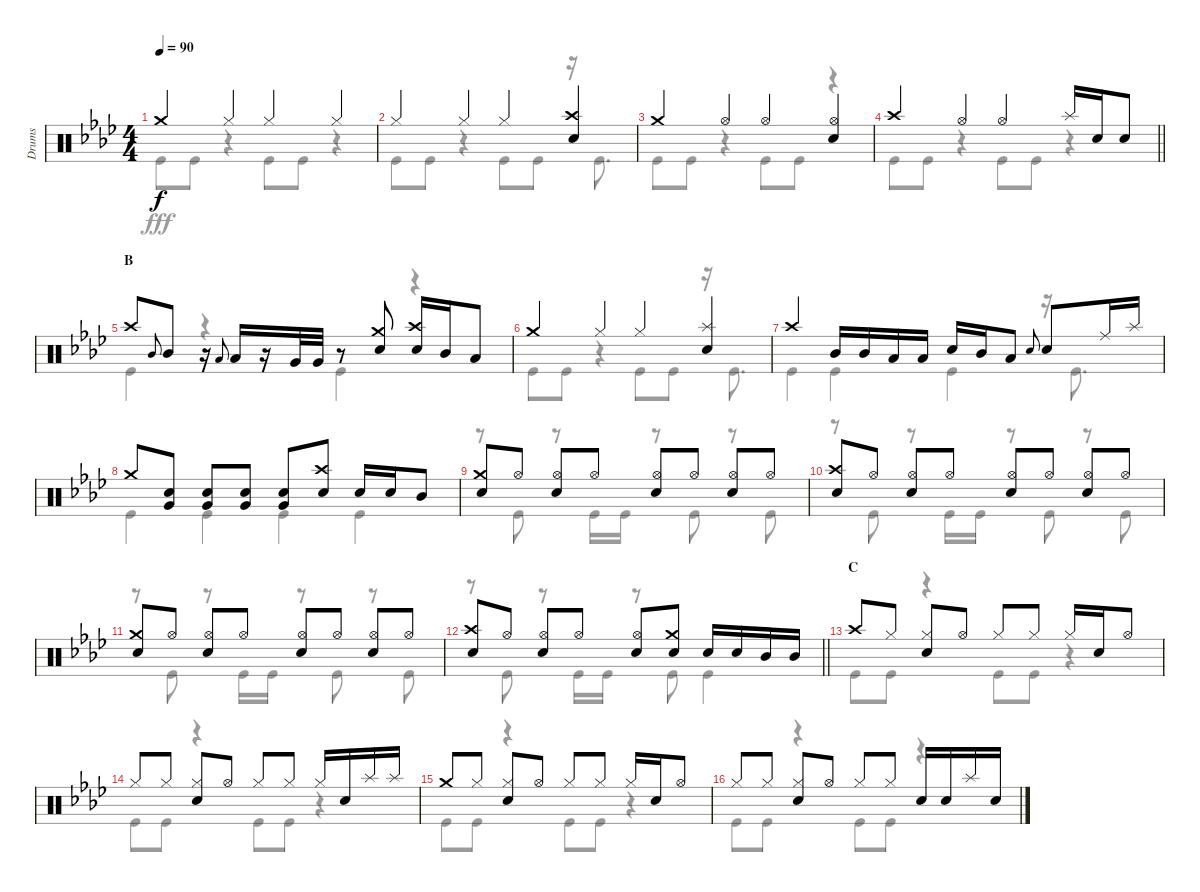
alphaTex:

\track ("Drums" "Drums") {instrument percussion}
\staff {score}
\articulation defaults
\voice
\ts (4 4)
\tempo 90
\clef neutral
\ks ab "Crash medium (hit)".4{dy f} "Hi-Hat (closed)".4 "Hi-Hat (closed)".4 "Hi-Hat (closed)".4
|
"Hi-Hat (closed)".4 "Hi-Hat (closed)".4 "Hi-Hat (closed)".4 ("Crash high (hit)" "Snare (hit) 2").4 |
"Crash medium (hit)".4 "Hi-Hat (open)".4 "Hi-Hat (open)".4 ("Hi-Hat (open)" "Snare (hit) 2").4 |
\barLineRight lightlight "Crash high (hit)".4 "Hi-Hat (open)".4 "Hi-Hat (open)".4 "Splash (hit)".16 "Snare (hit) 2".16 "Snare (hit) 2".8
|
\section ("" "B")
"Crash high (hit)".8 "Mid Tom (hit)".8{gr onbeat} "Mid Tom (hit)".8 r.16 "Low Tom (hit)".8{gr onbeat} "Low Tom (hit)".16 r.16 "Very Low Tom (hit)".32 "Very Low Tom (hit)".32 r.8 ("Crash medium (hit)" "Snare (hit) 2").8 ("Crash high (hit)" "Snare (hit) 2").16 "Mid Tom (hit)".16 "Low Tom (hit)".8 |
"Crash medium (hit)".4 "Hi-Hat (closed)".4 "Hi-Hat (closed)".4 ("Splash (hit)" "Snare (hit) 2").4 |
"Crash high (hit)".4 "Mid Tom (hit)".16 "Mid Tom (hit)".16 "Low Tom (hit)".16 "Low Tom (hit)".16 "Snare (hit) 2".16 "Mid Tom (hit)".16 "Low Tom (hit)".8 "Snare (hit) 2".8{gr onbeat} "Snare (hit) 2".8 "Ride (middle)".16 "Splash (hit)".16 |
"Crash medium (hit)".8 ("Snare (hit) 2" "Very Low Tom (hit)").8 ("Snare (hit) 2" "Very Low Tom (hit)").8 ("Snare (hit) 2" "Very Low Tom (hit)").8 ("Snare (hit) 2" "Very Low Tom (hit)").8 ("Crash high (hit)" "Snare (hit) 2").8 "Snare (hit) 2".16 "Snare (hit) 2".16 "Mid Tom (hit)".8 |
("Crash medium (hit)" "Snare (hit) 2").8 "Hi-Hat (open)".8 ("Hi-Hat (open)" "Snare (hit) 2").8 "Hi-Hat (open)".8 ("Hi-Hat (open)" "Snare (hit) 2").8 "Hi-Hat (open)".8 ("Hi-Hat (open)" "Snare (hit) 2").8 "Hi-Hat (open)".8 |
("Crash high (hit)" "Snare (hit) 2").8 "Hi-Hat (open)".8 ("Hi-Hat (open)" "Snare (hit) 2").8 "Hi-Hat (open)".8 ("Hi-Hat (open)" "Snare (hit) 2").8 "Hi-Hat (open)".8 ("Hi-Hat (open)" "Snare (hit) 2").8 "Hi-Hat (open)".8 |
("Crash medium (hit)" "Snare (hit) 2").8 "Hi-Hat (open)".8 ("Hi-Hat (open)" "Snare (hit) 2").8 "Hi-Hat (open)".8 ("Hi-Hat (open)" "Snare (hit) 2").8 "Hi-Hat (open)".8 ("Hi-Hat (open)" "Snare (hit) 2").8 "Hi-Hat (open)".8 |
\barLineRight lightlight
("Crash high (hit)" "Snare (hit) 2").8 "Hi-Hat (open)".8 ("Hi-Hat (open)" "Snare (hit) 2").8 "Hi-Hat (open)".8 ("Hi-Hat (open)" "Snare (hit) 2").8 ("Crash medium (hit)" "Snare (hit) 2").8 "Snare (hit) 2".16 "Snare (hit) 2".16 "Mid Tom (hit)".16 "Mid Tom (hit)".16 |
\section ("" "C")
"Crash high (hit)".8 "Hi-Hat (closed)".8 ("Hi-Hat (closed)" "Snare (hit) 2").8 "Hi-Hat (open)".8 "Hi-Hat (closed)".8 "Hi-Hat (closed)".8 "Hi-Hat (closed)".16 "Snare (hit) 2".16 "Hi-Hat (open)".8 |
"Hi-Hat (closed)".8 "Hi-Hat (closed)".8 ("Hi-Hat (closed)" "Snare (hit) 2").8 "Hi-Hat (open)".8 "Hi-Hat (closed)".8 "Hi-Hat (closed)".8 "Hi-Hat (closed)".16 "Snare (hit) 2".16 "Splash (hit)".16 "Splash (hit)".16 |
"Crash medium (hit)".8 "Hi-Hat (closed)".8 ("Hi-Hat (closed)" "Snare (hit) 2").8 "Hi-Hat (open)".8 "Hi-Hat (closed)".8 "Hi-Hat (closed)".8 "Hi-Hat (closed)".16 "Snare (hit) 2".16 "Hi-Hat (open)".8 |
"Hi-Hat (closed)".8 "Hi-Hat (closed)".8 ("Hi-Hat (closed)" "Snare (hit) 2").8 "Hi-Hat (open)".8 "Hi-Hat (closed)".8 "Hi-Hat (closed)".8 "Snare (hit) 2".16 "Snare (hit) 2".16 "Splash (hit)".16 "Snare (hit) 2".16
\voice
\clef neutral
\ottava regular
\simile none
\ks ab "Kick (hit)".8{dy fff} "Kick (hit)".8
r.4 "Kick (hit)".8 "Kick (hit)".8 r.4 |
"Kick (hit)".8 "Kick (hit)".8 r.4 "Kick (hit)".8 "Kick (hit)".8 r.16 "Kick (hit)".8{d} |
"Kick (hit)".8 "Kick (hit)".8 r.4 "Kick (hit)".8 "Kick (hit)".8 r.4 |
\barLineRight lightlight "Kick (hit)".8 "Kick (hit)".8
r.4 "Kick (hit)".8 "Kick (hit)".8 r.4 |
"Kick (hit)".4 r.4 "Kick (hit)".4 r.4 |
"Kick (hit)".8 "Kick (hit)".8 r.4 "Kick (hit)".8 "Kick (hit)".8 r.16 "Kick (hit)".8{d} |
"Kick (hit)".4 "Kick (hit)".4 "Kick (hit)".4 r.16 "Kick (hit)".8{d} |
"Kick (hit)".4 "Kick (hit)".4 "Kick (hit)".4 "Kick (hit)".4 |
r.8 "Kick (hit)".8 r.8 "Kick (hit)".16 "Kick (hit)".16 r.8 "Kick (hit)".8 r.8 "Kick (hit)".8 |
r.8 "Kick (hit)".8 r.8 "Kick (hit)".16 "Kick (hit)".16 r.8 "Kick (hit)".8 r.8 "Kick (hit)".8 |
r.8 "Kick (hit)".8 r.8 "Kick (hit)".16 "Kick (hit)".16 r.8 "Kick (hit)".8 r.8 "Kick (hit)".8 |
\barLineRight lightlight
r.8 "Kick (hit)".8 r.8 "Kick (hit)".16 "Kick (hit)".16 r.8 "Kick (hit)".8 "Kick (hit)".4 |
"Kick (hit)".8 "Kick (hit)".8 r.4 "Kick (hit)".8 "Kick (hit)".8 r.4 |
"Kick (hit)".8 "Kick (hit)".8 r.4 "Kick (hit)".8 "Kick (hit)".8 r.4 |
"Kick (hit)".8 "Kick (hit)".8 r.4 "Kick (hit)".8 "Kick (hit)".8 r.4 |
"Kick (hit)".8 "Kick (hit)".8 r.4 "Kick (hit)".8 "Kick (hit)".8 r.4
